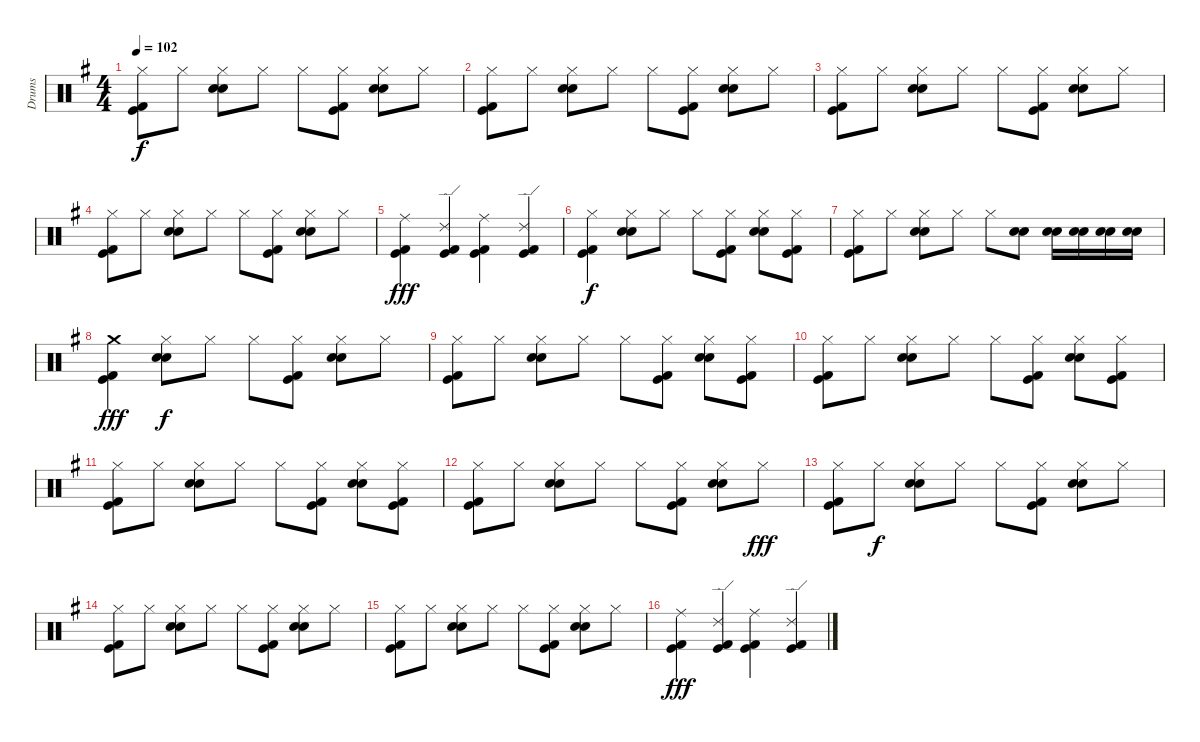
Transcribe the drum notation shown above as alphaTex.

\track ("Drums" "Drums") {instrument percussion}
\staff {score}
\articulation defaults
\ts (4 4)
\tempo 102
\clef neutral
\ks g
("Hi-Hat (closed)" "Kick (hit)" "Kick (hit) 2").8{dy f} "Hi-Hat (closed)".8 ("Hi-Hat (closed)" "Electric Snare (hit)" "Snare (hit) 2").8 "Hi-Hat (closed)".8 "Hi-Hat (closed)".8 ("Hi-Hat (closed)" "Kick (hit)" "Kick (hit) 2").8 ("Hi-Hat (closed)" "Electric Snare (hit)" "Snare (hit) 2").8 "Hi-Hat (closed)".8 |
("Hi-Hat (closed)" "Kick (hit)" "Kick (hit) 2").8 "Hi-Hat (closed)".8 ("Hi-Hat (closed)" "Electric Snare (hit)" "Snare (hit) 2").8 "Hi-Hat (closed)".8 "Hi-Hat (closed)".8 ("Hi-Hat (closed)" "Kick (hit)" "Kick (hit) 2").8 ("Hi-Hat (closed)" "Electric Snare (hit)" "Snare (hit) 2").8 "Hi-Hat (closed)".8 |
("Hi-Hat (closed)" "Kick (hit)" "Kick (hit) 2").8 "Hi-Hat (closed)".8 ("Hi-Hat (closed)" "Electric Snare (hit)" "Snare (hit) 2").8 "Hi-Hat (closed)".8 "Hi-Hat (closed)".8 ("Hi-Hat (closed)" "Kick (hit)" "Kick (hit) 2").8 ("Hi-Hat (closed)" "Electric Snare (hit)" "Snare (hit) 2").8 "Hi-Hat (closed)".8 |
("Hi-Hat (closed)" "Kick (hit)" "Kick (hit) 2").8 "Hi-Hat (closed)".8 ("Hi-Hat (closed)" "Electric Snare (hit)" "Snare (hit) 2").8 "Hi-Hat (closed)".8 "Hi-Hat (closed)".8 ("Hi-Hat (closed)" "Kick (hit)" "Kick (hit) 2").8 ("Hi-Hat (closed)" "Electric Snare (hit)" "Snare (hit) 2").8 "Hi-Hat (closed)".8 |
("Ride (middle)" "Kick (hit)" "Kick (hit) 2").4{dy fff} ("Ride (edge) 2" "Kick (hit)" "Kick (hit) 2").4 ("Ride (middle)" "Kick (hit)" "Kick (hit) 2").4 ("Ride (edge) 2" "Kick (hit)" "Kick (hit) 2").4 |
("Hi-Hat (closed)" "Kick (hit)" "Kick (hit) 2").4{dy f} ("Hi-Hat (closed)" "Electric Snare (hit)" "Snare (hit) 2").8 "Hi-Hat (closed)".8 "Hi-Hat (closed)".8 ("Hi-Hat (closed)" "Kick (hit)" "Kick (hit) 2").8 ("Hi-Hat (closed)" "Electric Snare (hit)" "Snare (hit) 2").8 ("Hi-Hat (closed)" "Kick (hit)" "Kick (hit) 2").8 |
("Hi-Hat (closed)" "Kick (hit)" "Kick (hit) 2").8 "Hi-Hat (closed)".8 ("Hi-Hat (closed)" "Electric Snare (hit)" "Snare (hit) 2").8 "Hi-Hat (closed)".8 "Hi-Hat (closed)".8 ("Electric Snare (hit)" "Snare (hit) 2").8 ("Electric Snare (hit)" "Snare (hit) 2").16 ("Electric Snare (hit)" "Snare (hit) 2").16 ("Electric Snare (hit)" "Snare (hit) 2").16 ("Electric Snare (hit)" "Snare (hit) 2").16 |
("Crash medium (hit)" "Kick (hit)" "Kick (hit) 2").4{dy fff} ("Hi-Hat (closed)" "Electric Snare (hit)" "Snare (hit) 2").8{dy f} "Hi-Hat (closed)".8 "Hi-Hat (closed)".8 ("Hi-Hat (closed)" "Kick (hit)" "Kick (hit) 2").8 ("Hi-Hat (closed)" "Electric Snare (hit)" "Snare (hit) 2").8 "Hi-Hat (closed)".8 |
("Hi-Hat (closed)" "Kick (hit)" "Kick (hit) 2").8 "Hi-Hat (closed)".8 ("Hi-Hat (closed)" "Electric Snare (hit)" "Snare (hit) 2").8 "Hi-Hat (closed)".8 "Hi-Hat (closed)".8 ("Hi-Hat (closed)" "Kick (hit)" "Kick (hit) 2").8 ("Hi-Hat (closed)" "Electric Snare (hit)" "Snare (hit) 2").8 ("Hi-Hat (closed)" "Kick (hit)" "Kick (hit) 2").8 |
("Hi-Hat (closed)" "Kick (hit)" "Kick (hit) 2").8 "Hi-Hat (closed)".8 ("Hi-Hat (closed)" "Electric Snare (hit)" "Snare (hit) 2").8 "Hi-Hat (closed)".8 "Hi-Hat (closed)".8 ("Hi-Hat (closed)" "Kick (hit)" "Kick (hit) 2").8 ("Hi-Hat (closed)" "Electric Snare (hit)" "Snare (hit) 2").8 ("Hi-Hat (closed)" "Kick (hit)" "Kick (hit) 2").8 |
("Hi-Hat (closed)" "Kick (hit)" "Kick (hit) 2").8 "Hi-Hat (closed)".8 ("Hi-Hat (closed)" "Electric Snare (hit)" "Snare (hit) 2").8 "Hi-Hat (closed)".8 "Hi-Hat (closed)".8 ("Hi-Hat (closed)" "Kick (hit)" "Kick (hit) 2").8 ("Hi-Hat (closed)" "Electric Snare (hit)" "Snare (hit) 2").8 ("Hi-Hat (closed)" "Kick (hit)" "Kick (hit) 2").8 |
("Hi-Hat (closed)" "Kick (hit)" "Kick (hit) 2").8 "Hi-Hat (closed)".8 ("Hi-Hat (closed)" "Electric Snare (hit)" "Snare (hit) 2").8 "Hi-Hat (closed)".8 "Hi-Hat (closed)".8 ("Hi-Hat (closed)" "Kick (hit)" "Kick (hit) 2").8 ("Hi-Hat (closed)" "Electric Snare (hit)" "Snare (hit) 2").8 "Hi-Hat (closed)".8{dy fff} |
("Hi-Hat (closed)" "Kick (hit)" "Kick (hit) 2").8 "Hi-Hat (closed)".8{dy f} ("Hi-Hat (closed)" "Electric Snare (hit)" "Snare (hit) 2").8 "Hi-Hat (closed)".8 "Hi-Hat (closed)".8 ("Hi-Hat (closed)" "Kick (hit)" "Kick (hit) 2").8 ("Hi-Hat (closed)" "Electric Snare (hit)" "Snare (hit) 2").8 "Hi-Hat (closed)".8 |
("Hi-Hat (closed)" "Kick (hit)" "Kick (hit) 2").8 "Hi-Hat (closed)".8 ("Hi-Hat (closed)" "Electric Snare (hit)" "Snare (hit) 2").8 "Hi-Hat (closed)".8 "Hi-Hat (closed)".8 ("Hi-Hat (closed)" "Kick (hit)" "Kick (hit) 2").8 ("Hi-Hat (closed)" "Electric Snare (hit)" "Snare (hit) 2").8 "Hi-Hat (closed)".8 |
("Hi-Hat (closed)" "Kick (hit)" "Kick (hit) 2").8 "Hi-Hat (closed)".8 ("Hi-Hat (closed)" "Electric Snare (hit)" "Snare (hit) 2").8 "Hi-Hat (closed)".8 "Hi-Hat (closed)".8 ("Hi-Hat (closed)" "Kick (hit)" "Kick (hit) 2").8 ("Hi-Hat (closed)" "Electric Snare (hit)" "Snare (hit) 2").8 "Hi-Hat (closed)".8 |
("Ride (middle)" "Kick (hit)" "Kick (hit) 2").4{dy fff} ("Ride (edge) 2" "Kick (hit)" "Kick (hit) 2").4 ("Ride (middle)" "Kick (hit)" "Kick (hit) 2").4 ("Ride (edge) 2" "Kick (hit)" "Kick (hit) 2").4
